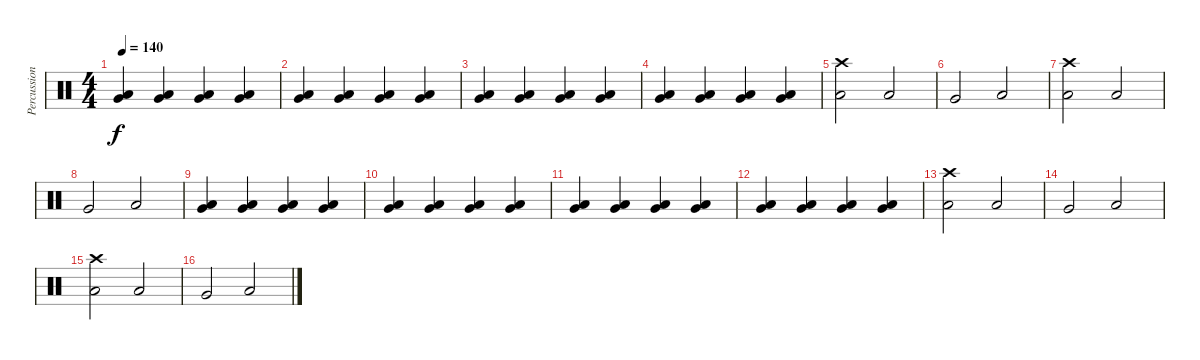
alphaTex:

\track ("Percussion" "Percussion") {instrument percussion}
\staff {score}
\articulation defaults
\ts (4 4)
\tempo 140
\clef neutral
\ks c
("Low Tom (hit)" "Very Low Tom (hit)").4{dy f} ("Low Tom (hit)" "Very Low Tom (hit)").4 ("Low Tom (hit)" "Very Low Tom (hit)").4 ("Low Tom (hit)" "Very Low Tom (hit)").4 |
("Low Tom (hit)" "Very Low Tom (hit)").4 ("Low Tom (hit)" "Very Low Tom (hit)").4 ("Low Tom (hit)" "Very Low Tom (hit)").4 ("Low Tom (hit)" "Very Low Tom (hit)").4 |
("Low Tom (hit)" "Very Low Tom (hit)").4 ("Low Tom (hit)" "Very Low Tom (hit)").4 ("Low Tom (hit)" "Very Low Tom (hit)").4 ("Low Tom (hit)" "Very Low Tom (hit)").4 |
("Low Tom (hit)" "Very Low Tom (hit)").4 ("Low Tom (hit)" "Very Low Tom (hit)").4 ("Low Tom (hit)" "Very Low Tom (hit)").4 ("Low Tom (hit)" "Very Low Tom (hit)").4 |
("Crash high (hit)" "Low Tom (hit)").2 "Low Tom (hit)".2 |
"Very Low Tom (hit)".2 "Low Floor Tom (hit)".2 |
("Crash high (hit)" "Low Tom (hit)").2 "Low Tom (hit)".2 |
"Very Low Tom (hit)".2 "Low Floor Tom (hit)".2 |
("Low Tom (hit)" "Very Low Tom (hit)").4 ("Low Tom (hit)" "Very Low Tom (hit)").4 ("Low Tom (hit)" "Very Low Tom (hit)").4 ("Low Tom (hit)" "Very Low Tom (hit)").4 |
("Low Tom (hit)" "Very Low Tom (hit)").4 ("Low Tom (hit)" "Very Low Tom (hit)").4 ("Low Tom (hit)" "Very Low Tom (hit)").4 ("Low Tom (hit)" "Very Low Tom (hit)").4 |
("Low Tom (hit)" "Very Low Tom (hit)").4 ("Low Tom (hit)" "Very Low Tom (hit)").4 ("Low Tom (hit)" "Very Low Tom (hit)").4 ("Low Tom (hit)" "Very Low Tom (hit)").4 |
("Low Tom (hit)" "Very Low Tom (hit)").4 ("Low Tom (hit)" "Very Low Tom (hit)").4 ("Low Tom (hit)" "Very Low Tom (hit)").4 ("Low Tom (hit)" "Very Low Tom (hit)").4 |
("Crash high (hit)" "Low Tom (hit)").2 "Low Tom (hit)".2 |
"Very Low Tom (hit)".2 "Low Floor Tom (hit)".2 |
("Crash high (hit)" "Low Tom (hit)").2 "Low Tom (hit)".2 |
"Very Low Tom (hit)".2 "Low Floor Tom (hit)".2
